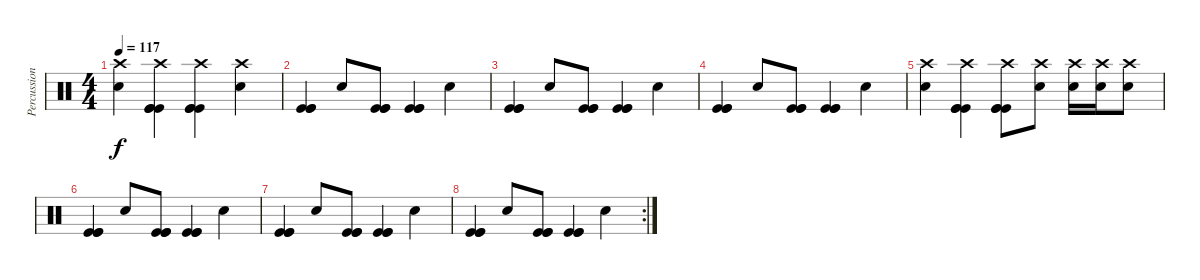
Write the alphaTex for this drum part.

\track ("Percussion" "Percussion") {instrument percussion}
\staff {score}
\articulation defaults
\ts (4 4)
\tempo 117
\clef neutral
\ks c
("Electric Snare (hit)" "Crash high (hit)").4{dy f} ("Kick (hit)" "Kick (hit)" "Kick (hit)" "Crash high (hit)").4 ("Kick (hit)" "Kick (hit)" "Kick (hit)" "Crash high (hit)").4 ("Electric Snare (hit)" "Crash high (hit)").4 |
("Kick (hit)" "Kick (hit)" "Kick (hit)").4 "Electric Snare (hit)".8 ("Kick (hit)" "Kick (hit)" "Kick (hit)").8 ("Kick (hit)" "Kick (hit)" "Kick (hit)").4 "Electric Snare (hit)".4 |
("Kick (hit)" "Kick (hit)" "Kick (hit)").4 "Electric Snare (hit)".8 ("Kick (hit)" "Kick (hit)" "Kick (hit)").8 ("Kick (hit)" "Kick (hit)" "Kick (hit)").4 "Electric Snare (hit)".4 |
("Kick (hit)" "Kick (hit)" "Kick (hit)").4 "Electric Snare (hit)".8 ("Kick (hit)" "Kick (hit)" "Kick (hit)").8 ("Kick (hit)" "Kick (hit)" "Kick (hit)").4 "Electric Snare (hit)".4 |
("Electric Snare (hit)" "Crash high (hit)").4 ("Kick (hit)" "Kick (hit)" "Kick (hit)" "Crash high (hit)").4 ("Kick (hit)" "Kick (hit)" "Kick (hit)" "Crash high (hit)").8 ("Electric Snare (hit)" "Crash high (hit)").8 ("Electric Snare (hit)" "Crash high (hit)").16 ("Electric Snare (hit)" "Crash high (hit)").16 ("Electric Snare (hit)" "Crash high (hit)").8 |
("Kick (hit)" "Kick (hit)" "Kick (hit)").4 "Electric Snare (hit)".8 ("Kick (hit)" "Kick (hit)" "Kick (hit)").8 ("Kick (hit)" "Kick (hit)" "Kick (hit)").4 "Electric Snare (hit)".4 |
("Kick (hit)" "Kick (hit)" "Kick (hit)").4 "Electric Snare (hit)".8 ("Kick (hit)" "Kick (hit)" "Kick (hit)").8 ("Kick (hit)" "Kick (hit)" "Kick (hit)").4 "Electric Snare (hit)".4 |
\rc 2
("Kick (hit)" "Kick (hit)" "Kick (hit)").4 "Electric Snare (hit)".8 ("Kick (hit)" "Kick (hit)" "Kick (hit)").8 ("Kick (hit)" "Kick (hit)" "Kick (hit)").4 "Electric Snare (hit)".4
